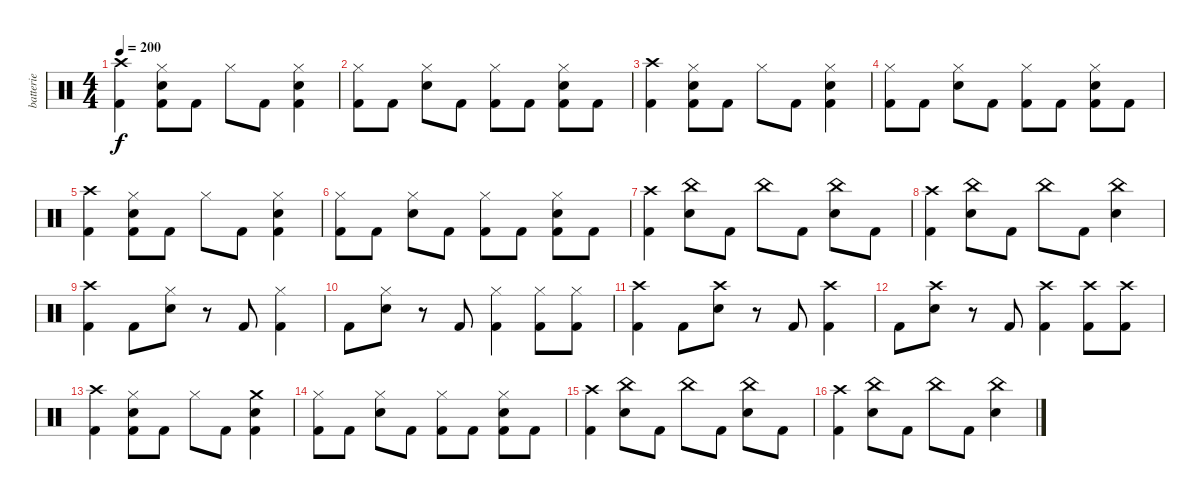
\track ("batterie" "batterie") {instrument percussion}
\staff {score}
\articulation defaults
\ts (4 4)
\tempo 200
\clef neutral
\ks c
("Kick (hit) 2" "Crash high (hit)").4{dy f} ("Kick (hit) 2" "Electric Snare (hit)" "Hi-Hat (closed)").8 "Kick (hit) 2".8 "Hi-Hat (closed)".8 "Kick (hit) 2".8 ("Kick (hit) 2" "Electric Snare (hit)" "Hi-Hat (closed)").4 |
("Kick (hit) 2" "Hi-Hat (closed)").8 "Kick (hit) 2".8 ("Electric Snare (hit)" "Hi-Hat (closed)").8 "Kick (hit) 2".8 ("Kick (hit) 2" "Hi-Hat (closed)").8 "Kick (hit) 2".8 ("Kick (hit) 2" "Electric Snare (hit)" "Hi-Hat (closed)").8 "Kick (hit) 2".8 |
("Kick (hit) 2" "Crash high (hit)").4 ("Kick (hit) 2" "Electric Snare (hit)" "Hi-Hat (closed)").8 "Kick (hit) 2".8 "Hi-Hat (closed)".8 "Kick (hit) 2".8 ("Kick (hit) 2" "Electric Snare (hit)" "Hi-Hat (closed)").4 |
("Kick (hit) 2" "Hi-Hat (closed)").8 "Kick (hit) 2".8 ("Electric Snare (hit)" "Hi-Hat (closed)").8 "Kick (hit) 2".8 ("Kick (hit) 2" "Hi-Hat (closed)").8 "Kick (hit) 2".8 ("Kick (hit) 2" "Electric Snare (hit)" "Hi-Hat (closed)").8 "Kick (hit) 2".8 |
("Kick (hit) 2" "Crash high (hit)").4 ("Kick (hit) 2" "Electric Snare (hit)" "Hi-Hat (closed)").8 "Kick (hit) 2".8 "Hi-Hat (closed)".8 "Kick (hit) 2".8 ("Kick (hit) 2" "Electric Snare (hit)" "Hi-Hat (closed)").4 |
("Kick (hit) 2" "Hi-Hat (closed)").8 "Kick (hit) 2".8 ("Electric Snare (hit)" "Hi-Hat (closed)").8 "Kick (hit) 2".8 ("Kick (hit) 2" "Hi-Hat (closed)").8 "Kick (hit) 2".8 ("Kick (hit) 2" "Electric Snare (hit)" "Hi-Hat (closed)").8 "Kick (hit) 2".8 |
("Kick (hit) 2" "Crash high (hit)").4 ("Electric Snare (hit)" "China (hit)").8 "Kick (hit) 2".8 "China (hit)".8 "Kick (hit) 2".8 ("Electric Snare (hit)" "China (hit)").8 "Kick (hit) 2".8 |
("Kick (hit) 2" "Crash high (hit)").4 ("Electric Snare (hit)" "China (hit)").8 "Kick (hit) 2".8 "China (hit)".8 "Kick (hit) 2".8 ("Electric Snare (hit)" "China (hit)").4 |
("Kick (hit) 2" "Crash high (hit)").4 "Kick (hit) 2".8 ("Electric Snare (hit)" "Hi-Hat (closed)").8 r.8 "Kick (hit) 2".8 ("Kick (hit) 2" "Hi-Hat (closed)").4 |
"Kick (hit) 2".8 ("Electric Snare (hit)" "Hi-Hat (closed)").8 r.8 "Kick (hit) 2".8 ("Kick (hit) 2" "Hi-Hat (closed)").4 ("Kick (hit) 2" "Hi-Hat (closed)").8 ("Kick (hit) 2" "Hi-Hat (closed)").8 |
("Kick (hit) 2" "Crash high (hit)").4 "Kick (hit) 2".8 ("Electric Snare (hit)" "Crash high (hit)").8 r.8 "Kick (hit) 2".8 ("Kick (hit) 2" "Crash high (hit)").4 |
"Kick (hit) 2".8 ("Electric Snare (hit)" "Crash high (hit)").8 r.8 "Kick (hit) 2".8 ("Kick (hit) 2" "Crash high (hit)").4 ("Kick (hit) 2" "Crash high (hit)").8 ("Kick (hit) 2" "Crash high (hit)").8 |
("Kick (hit) 2" "Crash high (hit)").4 ("Kick (hit) 2" "Electric Snare (hit)" "Hi-Hat (closed)").8 "Kick (hit) 2".8 "Hi-Hat (closed)".8 "Kick (hit) 2".8 ("Kick (hit) 2" "Electric Snare (hit)" "Crash medium (hit)").4 |
("Kick (hit) 2" "Hi-Hat (closed)").8 "Kick (hit) 2".8 ("Electric Snare (hit)" "Hi-Hat (closed)").8 "Kick (hit) 2".8 ("Kick (hit) 2" "Hi-Hat (closed)").8 "Kick (hit) 2".8 ("Kick (hit) 2" "Electric Snare (hit)" "Hi-Hat (closed)").8 "Kick (hit) 2".8 |
("Kick (hit) 2" "Crash high (hit)").4 ("Electric Snare (hit)" "China (hit)").8 "Kick (hit) 2".8 "China (hit)".8 "Kick (hit) 2".8 ("Electric Snare (hit)" "China (hit)").8 "Kick (hit) 2".8 |
("Kick (hit) 2" "Crash high (hit)").4 ("Electric Snare (hit)" "China (hit)").8 "Kick (hit) 2".8 "China (hit)".8 "Kick (hit) 2".8 ("Electric Snare (hit)" "China (hit)").4
